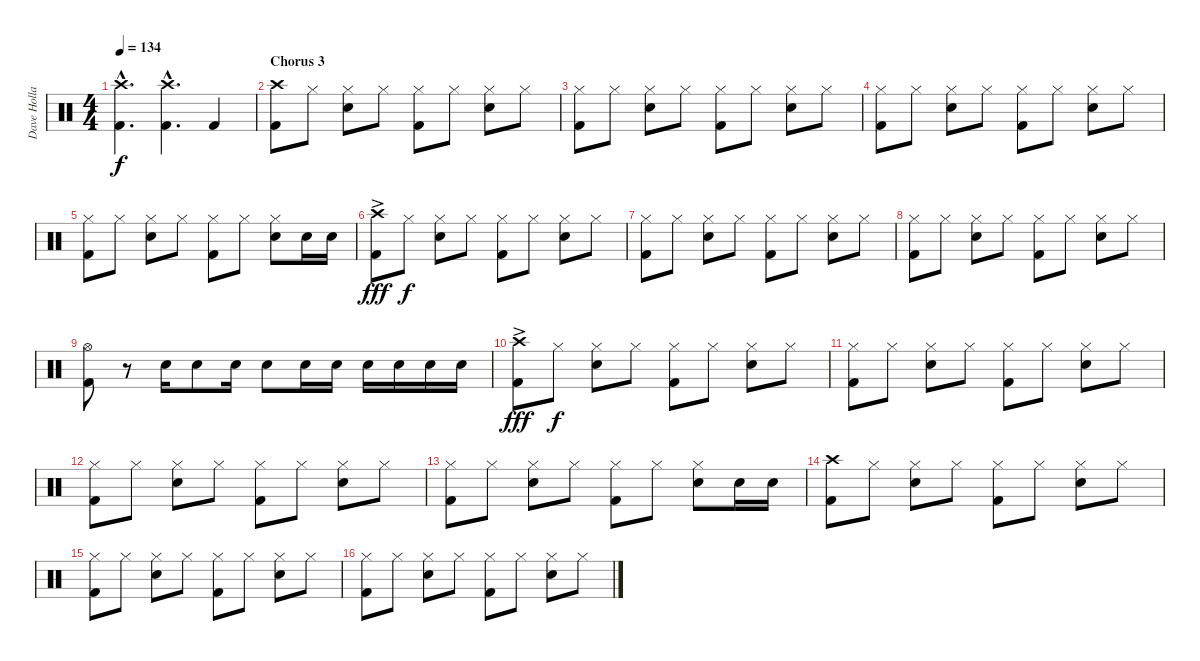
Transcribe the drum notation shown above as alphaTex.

\track ("Dave Holland" "Dave Holla") {instrument percussion}
\staff {score}
\articulation defaults
\ts (4 4)
\tempo 134
\clef neutral
\ks c
("Crash high (hit)"{hac} "Kick (hit) 2"{hac}).4{d dy f} ("Crash high (hit)"{hac} "Kick (hit) 2"{hac}).4{d} "Kick (hit) 2".4 |
\section ("" "Chorus 3")
("Crash high (hit)" "Kick (hit) 2").8 "Hi-Hat (closed)".8 ("Hi-Hat (closed)" "Snare (hit) 2").8 "Hi-Hat (closed)".8 ("Hi-Hat (closed)" "Kick (hit) 2").8 "Hi-Hat (closed)".8 ("Hi-Hat (closed)" "Snare (hit) 2").8 "Hi-Hat (closed)".8 |
("Hi-Hat (closed)" "Kick (hit) 2").8 "Hi-Hat (closed)".8 ("Hi-Hat (closed)" "Snare (hit) 2").8 "Hi-Hat (closed)".8 ("Hi-Hat (closed)" "Kick (hit) 2").8 "Hi-Hat (closed)".8 ("Hi-Hat (closed)" "Snare (hit) 2").8 "Hi-Hat (closed)".8 |
("Hi-Hat (closed)" "Kick (hit) 2").8 "Hi-Hat (closed)".8 ("Hi-Hat (closed)" "Snare (hit) 2").8 "Hi-Hat (closed)".8 ("Hi-Hat (closed)" "Kick (hit) 2").8 "Hi-Hat (closed)".8 ("Hi-Hat (closed)" "Snare (hit) 2").8 "Hi-Hat (closed)".8 |
("Hi-Hat (closed)" "Kick (hit) 2").8 "Hi-Hat (closed)".8 ("Hi-Hat (closed)" "Snare (hit) 2").8 "Hi-Hat (closed)".8 ("Hi-Hat (closed)" "Kick (hit) 2").8 "Hi-Hat (closed)".8 ("Hi-Hat (closed)" "Snare (hit) 2").8 "Snare (hit) 2".16 "Snare (hit) 2".16 |
("Crash high (hit)"{ac} "Kick (hit) 2").8{dy fff} "Hi-Hat (closed)".8{dy f} ("Hi-Hat (closed)" "Snare (hit) 2").8 "Hi-Hat (closed)".8 ("Hi-Hat (closed)" "Kick (hit) 2").8 "Hi-Hat (closed)".8 ("Hi-Hat (closed)" "Snare (hit) 2").8 "Hi-Hat (closed)".8 |
("Hi-Hat (closed)" "Kick (hit) 2").8 "Hi-Hat (closed)".8 ("Hi-Hat (closed)" "Snare (hit) 2").8 "Hi-Hat (closed)".8 ("Hi-Hat (closed)" "Kick (hit) 2").8 "Hi-Hat (closed)".8 ("Hi-Hat (closed)" "Snare (hit) 2").8 "Hi-Hat (closed)".8 |
("Hi-Hat (closed)" "Kick (hit) 2").8 "Hi-Hat (closed)".8 ("Hi-Hat (closed)" "Snare (hit) 2").8 "Hi-Hat (closed)".8 ("Hi-Hat (closed)" "Kick (hit) 2").8 "Hi-Hat (closed)".8 ("Hi-Hat (closed)" "Snare (hit) 2").8 "Hi-Hat (closed)".8 |
("Hi-Hat (open)" "Kick (hit) 2").8 r.8 "Snare (hit) 2".16 "Snare (hit) 2".8 "Snare (hit) 2".16 "Snare (hit) 2".8 "Snare (hit) 2".16 "Snare (hit) 2".16 "Snare (hit) 2".16 "Snare (hit) 2".16 "Snare (hit) 2".16 "Snare (hit) 2".16 |
("Crash high (hit)"{ac} "Kick (hit) 2").8{dy fff} "Hi-Hat (closed)".8{dy f} ("Hi-Hat (closed)" "Snare (hit) 2").8 "Hi-Hat (closed)".8 ("Hi-Hat (closed)" "Kick (hit) 2").8 "Hi-Hat (closed)".8 ("Hi-Hat (closed)" "Snare (hit) 2").8 "Hi-Hat (closed)".8 |
("Hi-Hat (closed)" "Kick (hit) 2").8 "Hi-Hat (closed)".8 ("Hi-Hat (closed)" "Snare (hit) 2").8 "Hi-Hat (closed)".8 ("Hi-Hat (closed)" "Kick (hit) 2").8 "Hi-Hat (closed)".8 ("Hi-Hat (closed)" "Snare (hit) 2").8 "Hi-Hat (closed)".8 |
("Hi-Hat (closed)" "Kick (hit) 2").8 "Hi-Hat (closed)".8 ("Hi-Hat (closed)" "Snare (hit) 2").8 "Hi-Hat (closed)".8 ("Hi-Hat (closed)" "Kick (hit) 2").8 "Hi-Hat (closed)".8 ("Hi-Hat (closed)" "Snare (hit) 2").8 "Hi-Hat (closed)".8 |
("Hi-Hat (closed)" "Kick (hit) 2").8 "Hi-Hat (closed)".8 ("Hi-Hat (closed)" "Snare (hit) 2").8 "Hi-Hat (closed)".8 ("Hi-Hat (closed)" "Kick (hit) 2").8 "Hi-Hat (closed)".8 ("Hi-Hat (closed)" "Snare (hit) 2").8 "Snare (hit) 2".16 "Snare (hit) 2".16 |
("Crash high (hit)" "Kick (hit) 2").8 "Hi-Hat (closed)".8 ("Hi-Hat (closed)" "Snare (hit) 2").8 "Hi-Hat (closed)".8 ("Hi-Hat (closed)" "Kick (hit) 2").8 "Hi-Hat (closed)".8 ("Hi-Hat (closed)" "Snare (hit) 2").8 "Hi-Hat (closed)".8 |
("Hi-Hat (closed)" "Kick (hit) 2").8 "Hi-Hat (closed)".8 ("Hi-Hat (closed)" "Snare (hit) 2").8 "Hi-Hat (closed)".8 ("Hi-Hat (closed)" "Kick (hit) 2").8 "Hi-Hat (closed)".8 ("Hi-Hat (closed)" "Snare (hit) 2").8 "Hi-Hat (closed)".8 |
("Hi-Hat (closed)" "Kick (hit) 2").8 "Hi-Hat (closed)".8 ("Hi-Hat (closed)" "Snare (hit) 2").8 "Hi-Hat (closed)".8 ("Hi-Hat (closed)" "Kick (hit) 2").8 "Hi-Hat (closed)".8 ("Hi-Hat (closed)" "Snare (hit) 2").8 "Hi-Hat (closed)".8
